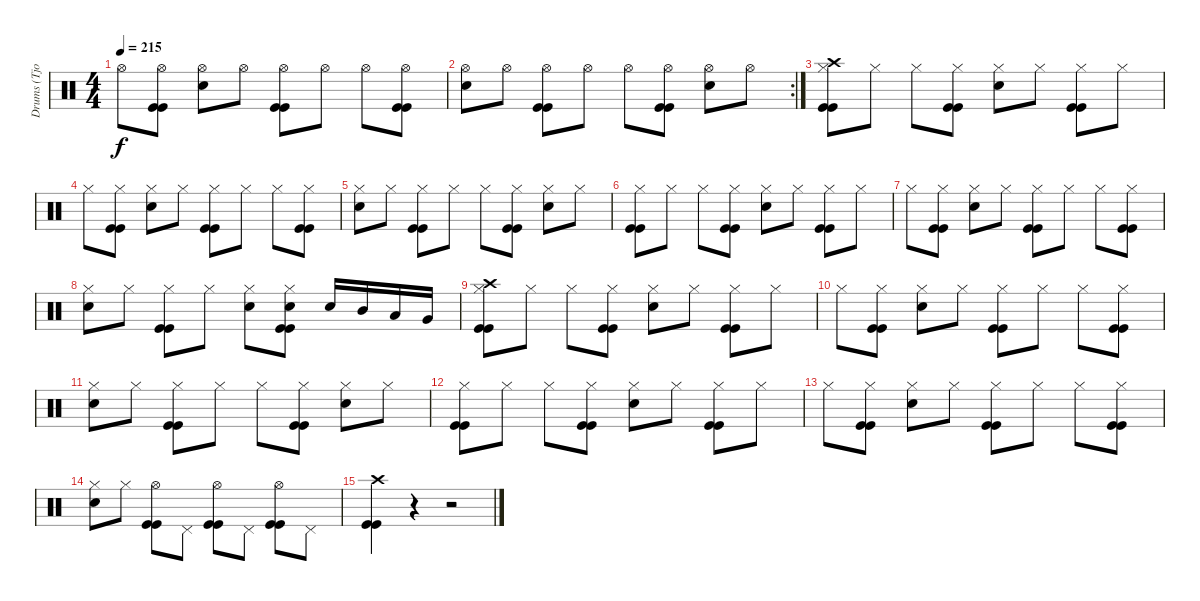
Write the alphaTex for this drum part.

\track ("Drums (Tjodalv)" "Drums (Tjo") {instrument percussion}
\staff {score}
\articulation defaults
\ts (4 4)
\tempo 215
\clef neutral
\ks c "Hi-Hat (open)".8{dy f}
("Hi-Hat (open)" "Kick (hit)" "Kick (hit)").8 ("Snare (hit) 2" "Hi-Hat (open)").8 "Hi-Hat (open)".8 ("Hi-Hat (open)" "Kick (hit)" "Kick (hit)").8 "Hi-Hat (open)".8 "Hi-Hat (open)".8 ("Hi-Hat (open)" "Kick (hit)" "Kick (hit)").8 |
\rc 2
("Snare (hit) 2" "Hi-Hat (open)").8 "Hi-Hat (open)".8 ("Hi-Hat (open)" "Kick (hit)" "Kick (hit)").8 "Hi-Hat (open)".8 "Hi-Hat (open)".8 ("Hi-Hat (open)" "Kick (hit)" "Kick (hit)").8 ("Snare (hit) 2" "Hi-Hat (open)").8 "Hi-Hat (open)".8 |
("Crash high (hit)" "Hi-Hat (closed)" "Kick (hit)" "Kick (hit)").8 "Hi-Hat (closed)".8 "Hi-Hat (closed)".8 ("Hi-Hat (closed)" "Kick (hit)" "Kick (hit)").8 ("Snare (hit) 2" "Hi-Hat (closed)").8 "Hi-Hat (closed)".8 ("Hi-Hat (closed)" "Kick (hit)" "Kick (hit)").8 "Hi-Hat (closed)".8 |
"Hi-Hat (closed)".8 ("Hi-Hat (closed)" "Kick (hit)" "Kick (hit)").8 ("Snare (hit) 2" "Hi-Hat (closed)").8 "Hi-Hat (closed)".8 ("Hi-Hat (closed)" "Kick (hit)" "Kick (hit)").8 "Hi-Hat (closed)".8 "Hi-Hat (closed)".8 ("Hi-Hat (closed)" "Kick (hit)" "Kick (hit)").8 |
("Snare (hit) 2" "Hi-Hat (closed)").8 "Hi-Hat (closed)".8 ("Hi-Hat (closed)" "Kick (hit)" "Kick (hit)").8 "Hi-Hat (closed)".8 "Hi-Hat (closed)".8 ("Hi-Hat (closed)" "Kick (hit)" "Kick (hit)").8 ("Snare (hit) 2" "Hi-Hat (closed)").8 "Hi-Hat (closed)".8 |
("Hi-Hat (closed)" "Kick (hit)" "Kick (hit)").8 "Hi-Hat (closed)".8 "Hi-Hat (closed)".8 ("Hi-Hat (closed)" "Kick (hit)" "Kick (hit)").8 ("Snare (hit) 2" "Hi-Hat (closed)").8 "Hi-Hat (closed)".8 ("Hi-Hat (closed)" "Kick (hit)" "Kick (hit)").8 "Hi-Hat (closed)".8 |
"Hi-Hat (closed)".8 ("Hi-Hat (closed)" "Kick (hit)" "Kick (hit)").8 ("Snare (hit) 2" "Hi-Hat (closed)").8 "Hi-Hat (closed)".8 ("Hi-Hat (closed)" "Kick (hit)" "Kick (hit)").8 "Hi-Hat (closed)".8 "Hi-Hat (closed)".8 ("Hi-Hat (closed)" "Kick (hit)" "Kick (hit)").8 |
("Snare (hit) 2" "Hi-Hat (closed)").8 "Hi-Hat (closed)".8 ("Hi-Hat (closed)" "Kick (hit)" "Kick (hit)").8 "Hi-Hat (closed)".8 ("Snare (hit) 2" "Hi-Hat (closed)").8 ("Snare (hit) 2" "Hi-Hat (closed)" "Kick (hit)" "Kick (hit)").8 "Snare (hit) 2".16 "Mid Tom (hit)".16 "Low Tom (hit)".16 "Very Low Tom (hit)".16 |
("Crash high (hit)" "Hi-Hat (closed)" "Kick (hit)" "Kick (hit)").8 "Hi-Hat (closed)".8 "Hi-Hat (closed)".8 ("Hi-Hat (closed)" "Kick (hit)" "Kick (hit)").8 ("Snare (hit) 2" "Hi-Hat (closed)").8 "Hi-Hat (closed)".8 ("Hi-Hat (closed)" "Kick (hit)" "Kick (hit)").8 "Hi-Hat (closed)".8 |
"Hi-Hat (closed)".8 ("Hi-Hat (closed)" "Kick (hit)" "Kick (hit)").8 ("Snare (hit) 2" "Hi-Hat (closed)").8 "Hi-Hat (closed)".8 ("Hi-Hat (closed)" "Kick (hit)" "Kick (hit)").8 "Hi-Hat (closed)".8 "Hi-Hat (closed)".8 ("Hi-Hat (closed)" "Kick (hit)" "Kick (hit)").8 |
("Snare (hit) 2" "Hi-Hat (closed)").8 "Hi-Hat (closed)".8 ("Hi-Hat (closed)" "Kick (hit)" "Kick (hit)").8 "Hi-Hat (closed)".8 "Hi-Hat (closed)".8 ("Hi-Hat (closed)" "Kick (hit)" "Kick (hit)").8 ("Snare (hit) 2" "Hi-Hat (closed)").8 "Hi-Hat (closed)".8 |
("Hi-Hat (closed)" "Kick (hit)" "Kick (hit)").8 "Hi-Hat (closed)".8 "Hi-Hat (closed)".8 ("Hi-Hat (closed)" "Kick (hit)" "Kick (hit)").8 ("Snare (hit) 2" "Hi-Hat (closed)").8 "Hi-Hat (closed)".8 ("Hi-Hat (closed)" "Kick (hit)" "Kick (hit)").8 "Hi-Hat (closed)".8 |
"Hi-Hat (closed)".8 ("Hi-Hat (closed)" "Kick (hit)" "Kick (hit)").8 ("Snare (hit) 2" "Hi-Hat (closed)").8 "Hi-Hat (closed)".8 ("Hi-Hat (closed)" "Kick (hit)" "Kick (hit)").8 "Hi-Hat (closed)".8 "Hi-Hat (closed)".8 ("Hi-Hat (closed)" "Kick (hit)" "Kick (hit)").8 |
("Snare (hit) 2" "Hi-Hat (closed)").8 "Hi-Hat (closed)".8 ("Hi-Hat (open)" "Kick (hit)" "Kick (hit)").8 "Pedal Hi-Hat (hit)".8 ("Hi-Hat (open)" "Kick (hit)" "Kick (hit)").8 "Pedal Hi-Hat (hit)".8 ("Hi-Hat (open)" "Kick (hit)" "Kick (hit)").8 "Pedal Hi-Hat (hit)".8 |
("Crash high (hit)" "Kick (hit)" "Kick (hit)").4 r.4 r.2
